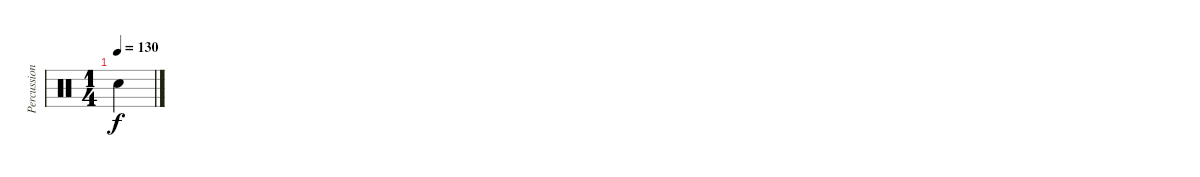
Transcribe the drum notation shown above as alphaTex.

\track ("Percussion" "Percussion") {instrument percussion}
\staff {score}
\articulation defaults
\ts (1 4)
\tempo 130
\clef neutral
\ks c "Snare (hit) 2".4{dy f}
